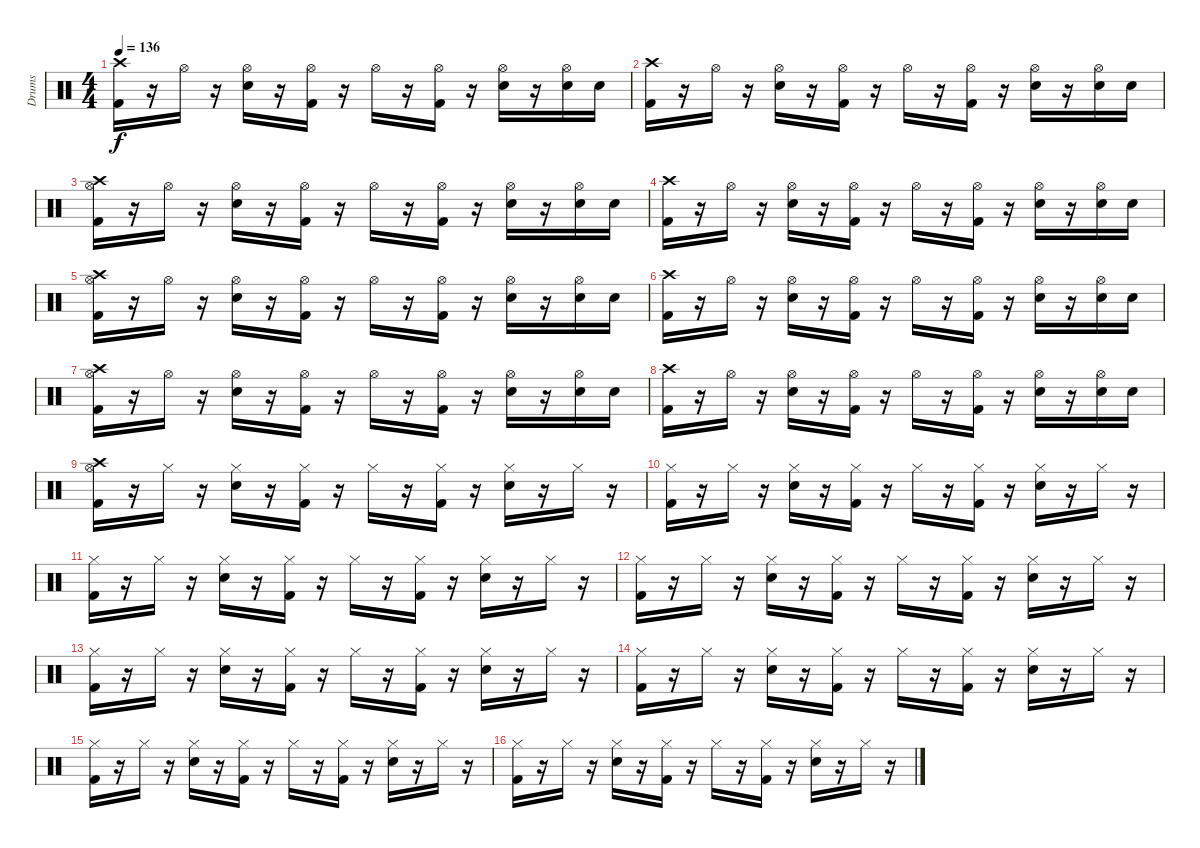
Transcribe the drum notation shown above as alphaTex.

\track ("Drums" "Drums") {instrument percussion}
\staff {score}
\articulation defaults
\ts (4 4)
\tempo 136
\clef neutral
\ks c
("Kick (hit) 2" "Crash high (hit)").16{dy f} r.16 "Hi-Hat (open)".16 r.16 ("Electric Snare (hit)" "Hi-Hat (open)").16 r.16 ("Kick (hit) 2" "Hi-Hat (open)").16 r.16 "Hi-Hat (open)".16 r.16 ("Kick (hit) 2" "Hi-Hat (open)").16 r.16 ("Electric Snare (hit)" "Hi-Hat (open)").16 r.16 ("Electric Snare (hit)" "Hi-Hat (open)").16 "Electric Snare (hit)".16 |
("Kick (hit) 2" "Crash high (hit)").16 r.16 "Hi-Hat (open)".16 r.16 ("Electric Snare (hit)" "Hi-Hat (open)").16 r.16 ("Kick (hit) 2" "Hi-Hat (open)").16 r.16 "Hi-Hat (open)".16 r.16 ("Kick (hit) 2" "Hi-Hat (open)").16 r.16 ("Electric Snare (hit)" "Hi-Hat (open)").16 r.16 ("Electric Snare (hit)" "Hi-Hat (open)").16 "Electric Snare (hit)".16 |
("Kick (hit) 2" "Hi-Hat (open)" "Crash high (hit)").16 r.16 "Hi-Hat (open)".16 r.16 ("Electric Snare (hit)" "Hi-Hat (open)").16 r.16 ("Kick (hit) 2" "Hi-Hat (open)").16 r.16 "Hi-Hat (open)".16 r.16 ("Kick (hit) 2" "Hi-Hat (open)").16 r.16 ("Electric Snare (hit)" "Hi-Hat (open)").16 r.16 ("Electric Snare (hit)" "Hi-Hat (open)").16 "Electric Snare (hit)".16 |
("Kick (hit) 2" "Crash high (hit)").16 r.16 "Hi-Hat (open)".16 r.16 ("Electric Snare (hit)" "Hi-Hat (open)").16 r.16 ("Kick (hit) 2" "Hi-Hat (open)").16 r.16 "Hi-Hat (open)".16 r.16 ("Kick (hit) 2" "Hi-Hat (open)").16 r.16 ("Electric Snare (hit)" "Hi-Hat (open)").16 r.16 ("Electric Snare (hit)" "Hi-Hat (open)").16 "Electric Snare (hit)".16 |
("Kick (hit) 2" "Hi-Hat (open)" "Crash high (hit)").16 r.16 "Hi-Hat (open)".16 r.16 ("Electric Snare (hit)" "Hi-Hat (open)").16 r.16 ("Kick (hit) 2" "Hi-Hat (open)").16 r.16 "Hi-Hat (open)".16 r.16 ("Kick (hit) 2" "Hi-Hat (open)").16 r.16 ("Electric Snare (hit)" "Hi-Hat (open)").16 r.16 ("Electric Snare (hit)" "Hi-Hat (open)").16 "Electric Snare (hit)".16 |
("Kick (hit) 2" "Crash high (hit)").16 r.16 "Hi-Hat (open)".16 r.16 ("Electric Snare (hit)" "Hi-Hat (open)").16 r.16 ("Kick (hit) 2" "Hi-Hat (open)").16 r.16 "Hi-Hat (open)".16 r.16 ("Kick (hit) 2" "Hi-Hat (open)").16 r.16 ("Electric Snare (hit)" "Hi-Hat (open)").16 r.16 ("Electric Snare (hit)" "Hi-Hat (open)").16 "Electric Snare (hit)".16 |
("Kick (hit) 2" "Hi-Hat (open)" "Crash high (hit)").16 r.16 "Hi-Hat (open)".16 r.16 ("Electric Snare (hit)" "Hi-Hat (open)").16 r.16 ("Kick (hit) 2" "Hi-Hat (open)").16 r.16 "Hi-Hat (open)".16 r.16 ("Kick (hit) 2" "Hi-Hat (open)").16 r.16 ("Electric Snare (hit)" "Hi-Hat (open)").16 r.16 ("Electric Snare (hit)" "Hi-Hat (open)").16 "Electric Snare (hit)".16 |
("Kick (hit) 2" "Crash high (hit)").16 r.16 "Hi-Hat (open)".16 r.16 ("Electric Snare (hit)" "Hi-Hat (open)").16 r.16 ("Kick (hit) 2" "Hi-Hat (open)").16 r.16 "Hi-Hat (open)".16 r.16 ("Kick (hit) 2" "Hi-Hat (open)").16 r.16 ("Electric Snare (hit)" "Hi-Hat (open)").16 r.16 ("Electric Snare (hit)" "Hi-Hat (open)").16 "Electric Snare (hit)".16 |
("Kick (hit) 2" "Hi-Hat (open)" "Crash high (hit)").16 r.16 "Hi-Hat (closed)".16 r.16 ("Electric Snare (hit)" "Hi-Hat (closed)").16 r.16 ("Kick (hit) 2" "Hi-Hat (closed)").16 r.16 "Hi-Hat (closed)".16 r.16 ("Kick (hit) 2" "Hi-Hat (closed)").16 r.16 ("Electric Snare (hit)" "Hi-Hat (closed)").16 r.16 "Hi-Hat (closed)".16 r.16 |
("Kick (hit) 2" "Hi-Hat (closed)").16 r.16 "Hi-Hat (closed)".16 r.16 ("Electric Snare (hit)" "Hi-Hat (closed)").16 r.16 ("Kick (hit) 2" "Hi-Hat (closed)").16 r.16 "Hi-Hat (closed)".16 r.16 ("Kick (hit) 2" "Hi-Hat (closed)").16 r.16 ("Electric Snare (hit)" "Hi-Hat (closed)").16 r.16 "Hi-Hat (closed)".16 r.16 |
("Kick (hit) 2" "Hi-Hat (closed)").16 r.16 "Hi-Hat (closed)".16 r.16 ("Electric Snare (hit)" "Hi-Hat (closed)").16 r.16 ("Kick (hit) 2" "Hi-Hat (closed)").16 r.16 "Hi-Hat (closed)".16 r.16 ("Kick (hit) 2" "Hi-Hat (closed)").16 r.16 ("Electric Snare (hit)" "Hi-Hat (closed)").16 r.16 "Hi-Hat (closed)".16 r.16 |
("Kick (hit) 2" "Hi-Hat (closed)").16 r.16 "Hi-Hat (closed)".16 r.16 ("Electric Snare (hit)" "Hi-Hat (closed)").16 r.16 ("Kick (hit) 2" "Hi-Hat (closed)").16 r.16 "Hi-Hat (closed)".16 r.16 ("Kick (hit) 2" "Hi-Hat (closed)").16 r.16 ("Electric Snare (hit)" "Hi-Hat (closed)").16 r.16 "Hi-Hat (closed)".16 r.16 |
("Kick (hit) 2" "Hi-Hat (closed)").16 r.16 "Hi-Hat (closed)".16 r.16 ("Electric Snare (hit)" "Hi-Hat (closed)").16 r.16 ("Kick (hit) 2" "Hi-Hat (closed)").16 r.16 "Hi-Hat (closed)".16 r.16 ("Kick (hit) 2" "Hi-Hat (closed)").16 r.16 ("Electric Snare (hit)" "Hi-Hat (closed)").16 r.16 "Hi-Hat (closed)".16 r.16 |
("Kick (hit) 2" "Hi-Hat (closed)").16 r.16 "Hi-Hat (closed)".16 r.16 ("Electric Snare (hit)" "Hi-Hat (closed)").16 r.16 ("Kick (hit) 2" "Hi-Hat (closed)").16 r.16 "Hi-Hat (closed)".16 r.16 ("Kick (hit) 2" "Hi-Hat (closed)").16 r.16 ("Electric Snare (hit)" "Hi-Hat (closed)").16 r.16 "Hi-Hat (closed)".16 r.16 |
("Kick (hit) 2" "Hi-Hat (closed)").16 r.16 "Hi-Hat (closed)".16 r.16 ("Electric Snare (hit)" "Hi-Hat (closed)").16 r.16 ("Kick (hit) 2" "Hi-Hat (closed)").16 r.16 "Hi-Hat (closed)".16 r.16 ("Kick (hit) 2" "Hi-Hat (closed)").16 r.16 ("Electric Snare (hit)" "Hi-Hat (closed)").16 r.16 "Hi-Hat (closed)".16 r.16 |
("Kick (hit) 2" "Hi-Hat (closed)").16 r.16 "Hi-Hat (closed)".16 r.16 ("Electric Snare (hit)" "Hi-Hat (closed)").16 r.16 ("Kick (hit) 2" "Hi-Hat (closed)").16 r.16 "Hi-Hat (closed)".16 r.16 ("Kick (hit) 2" "Hi-Hat (closed)").16 r.16 ("Electric Snare (hit)" "Hi-Hat (closed)").16 r.16 "Hi-Hat (closed)".16 r.16
